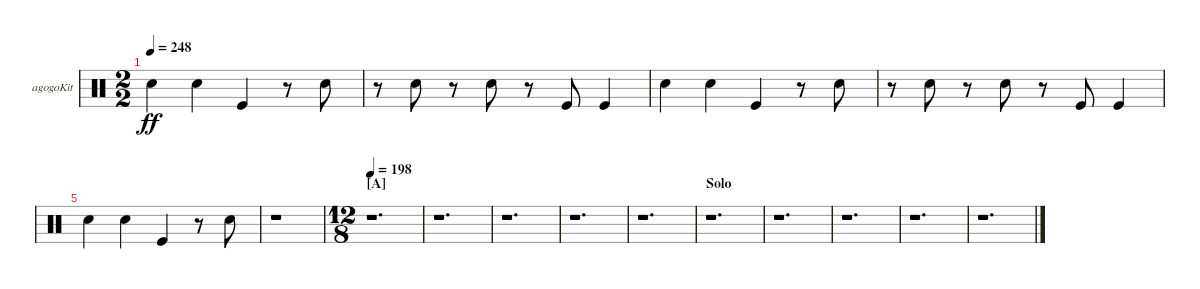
\bracketExtendMode nobrackets
\firstSystemTrackNameOrientation horizontal
\otherSystemsTrackNameOrientation horizontal
\defaultBarNumberDisplay FirstOfSystem
\track ("Agogo" "agogoKit") {instrument percussion}
\staff {score}
\articulation defaults
\ts (2 2)
\tempo 248
\clef neutral
\ks c "Snare (hit) 2".4{dy ff} "Snare (hit) 2".4 "Kick (hit)".4
r.8 "Snare (hit) 2".8 |
r.8 "Snare (hit) 2".8 r.8 "Snare (hit) 2".8 r.8 "Kick (hit)".8 "Kick (hit)".4 |
\scale
0.365079 "Snare (hit) 2".4 "Snare (hit) 2".4 "Kick (hit)".4 r.8 "Snare (hit) 2".8 |
\scale
0.333333 r.8 "Snare (hit) 2".8 r.8 "Snare (hit) 2".8 r.8 "Kick (hit)".8 "Kick (hit)".4 |
\scale
0.301587 "Snare (hit) 2".4 "Snare (hit) 2".4 "Kick (hit)".4 r.8 "Snare (hit) 2".8 |
\scale
0.292308 r.1 |
\ts (12 8)
\beaming (8 2 2 2 6)
\section ("A" "")
\tempo 198
\scale
0.415385 r.1{d} |
\scale
0.292308 r.1{d} |
\scale
0.333333 r.1{d} |
\scale
0.333333 r.1{d} |
\scale
0.333333 r.1{d} |
\section ("" "Solo")
\scale
0.333333 r.1{d} |
\scale
0.333333 r.1{d} |
\scale
0.333333 r.1{d} |
\scale
0.333333 r.1{d} |
\scale
0.333333 r.1{d}
